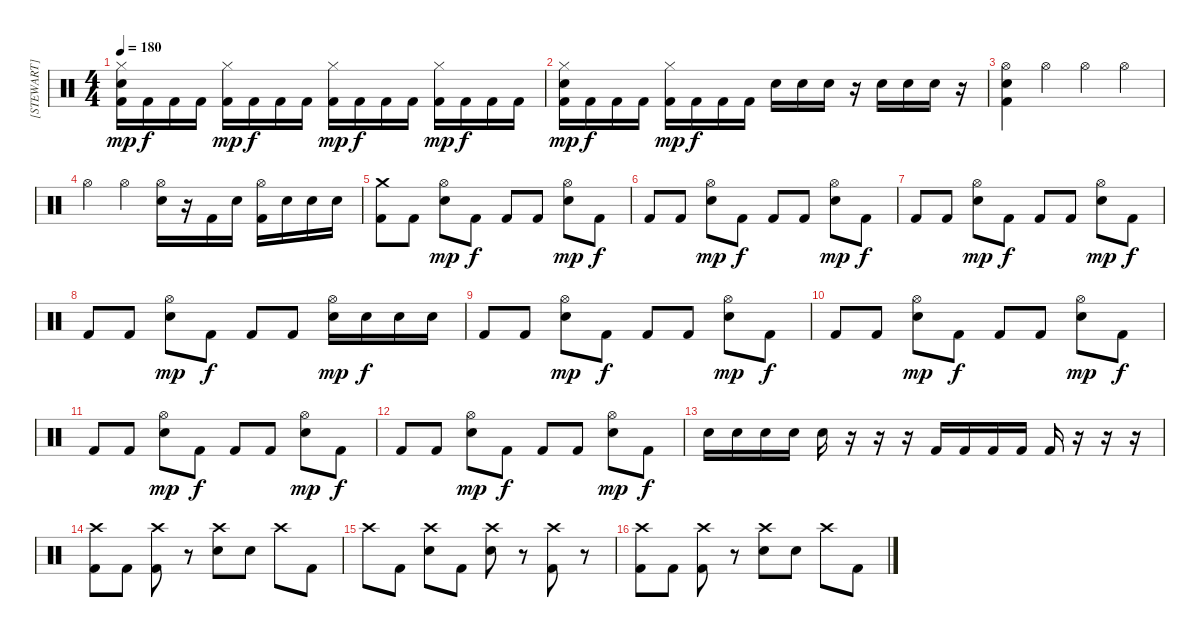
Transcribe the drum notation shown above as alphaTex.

\track ("[STEWART]" "[STEWART]") {instrument percussion}
\staff {score}
\articulation defaults
\ts (4 4)
\tempo 180
\clef neutral
\ks c
("Hi-Hat (closed)" "Snare (hit) 2" "Kick (hit) 2").16{dy mp} "Kick (hit) 2".16{dy f} "Kick (hit) 2".16 "Kick (hit) 2".16 ("Hi-Hat (closed)" "Kick (hit) 2").16{dy mp} "Kick (hit) 2".16{dy f} "Kick (hit) 2".16 "Kick (hit) 2".16 ("Hi-Hat (closed)" "Kick (hit) 2").16{dy mp} "Kick (hit) 2".16{dy f} "Kick (hit) 2".16 "Kick (hit) 2".16 ("Hi-Hat (closed)" "Kick (hit) 2").16{dy mp} "Kick (hit) 2".16{dy f} "Kick (hit) 2".16 "Kick (hit) 2".16 |
("Hi-Hat (closed)" "Snare (hit) 2" "Kick (hit) 2").16{dy mp} "Kick (hit) 2".16{dy f} "Kick (hit) 2".16 "Kick (hit) 2".16 ("Hi-Hat (closed)" "Kick (hit) 2").16{dy mp} "Kick (hit) 2".16{dy f} "Kick (hit) 2".16 "Kick (hit) 2".16 "Snare (hit) 2".16 "Snare (hit) 2".16 "Snare (hit) 2".16 r.16 "Snare (hit) 2".16 "Snare (hit) 2".16 "Snare (hit) 2".16 r.16 |
("Hi-Hat (open)" "Snare (hit) 2" "Kick (hit) 2").4 "Hi-Hat (open)".4 "Hi-Hat (open)".4 "Hi-Hat (open)".4 |
"Hi-Hat (open)".4 "Hi-Hat (open)".4 ("Hi-Hat (open)" "Snare (hit) 2").16 r.16 "Kick (hit) 2".16 "Snare (hit) 2".16 ("Hi-Hat (open)" "Kick (hit) 2").16 "Snare (hit) 2".16 "Snare (hit) 2".16 "Snare (hit) 2".16 |
("Crash medium (hit)" "Kick (hit) 2").8 "Kick (hit) 2".8 ("Hi-Hat (open)" "Snare (hit) 2").8{dy mp} "Kick (hit) 2".8{dy f} "Kick (hit) 2".8 "Kick (hit) 2".8 ("Hi-Hat (open)" "Snare (hit) 2").8{dy mp} "Kick (hit) 2".8{dy f} |
"Kick (hit) 2".8 "Kick (hit) 2".8 ("Hi-Hat (open)" "Snare (hit) 2").8{dy mp} "Kick (hit) 2".8{dy f} "Kick (hit) 2".8 "Kick (hit) 2".8 ("Hi-Hat (open)" "Snare (hit) 2").8{dy mp} "Kick (hit) 2".8{dy f} |
"Kick (hit) 2".8 "Kick (hit) 2".8 ("Hi-Hat (open)" "Snare (hit) 2").8{dy mp} "Kick (hit) 2".8{dy f} "Kick (hit) 2".8 "Kick (hit) 2".8 ("Hi-Hat (open)" "Snare (hit) 2").8{dy mp} "Kick (hit) 2".8{dy f} |
"Kick (hit) 2".8 "Kick (hit) 2".8 ("Hi-Hat (open)" "Snare (hit) 2").8{dy mp} "Kick (hit) 2".8{dy f} "Kick (hit) 2".8 "Kick (hit) 2".8 ("Hi-Hat (open)" "Snare (hit) 2").16{dy mp} "Snare (hit) 2".16{dy f} "Snare (hit) 2".16 "Snare (hit) 2".16 |
"Kick (hit) 2".8 "Kick (hit) 2".8 ("Hi-Hat (open)" "Snare (hit) 2").8{dy mp} "Kick (hit) 2".8{dy f} "Kick (hit) 2".8 "Kick (hit) 2".8 ("Hi-Hat (open)" "Snare (hit) 2").8{dy mp} "Kick (hit) 2".8{dy f} |
"Kick (hit) 2".8 "Kick (hit) 2".8 ("Hi-Hat (open)" "Snare (hit) 2").8{dy mp} "Kick (hit) 2".8{dy f} "Kick (hit) 2".8 "Kick (hit) 2".8 ("Hi-Hat (open)" "Snare (hit) 2").8{dy mp} "Kick (hit) 2".8{dy f} |
"Kick (hit) 2".8 "Kick (hit) 2".8 ("Hi-Hat (open)" "Snare (hit) 2").8{dy mp} "Kick (hit) 2".8{dy f} "Kick (hit) 2".8 "Kick (hit) 2".8 ("Hi-Hat (open)" "Snare (hit) 2").8{dy mp} "Kick (hit) 2".8{dy f} |
"Kick (hit) 2".8 "Kick (hit) 2".8 ("Hi-Hat (open)" "Snare (hit) 2").8{dy mp} "Kick (hit) 2".8{dy f} "Kick (hit) 2".8 "Kick (hit) 2".8 ("Hi-Hat (open)" "Snare (hit) 2").8{dy mp} "Kick (hit) 2".8{dy f} |
"Snare (hit) 2".16 "Snare (hit) 2".16 "Snare (hit) 2".16 "Snare (hit) 2".16 "Snare (hit) 2".16 r.16 r.16 r.16 "Kick (hit) 2".16 "Kick (hit) 2".16 "Kick (hit) 2".16 "Kick (hit) 2".16 "Kick (hit) 2".16 r.16 r.16 r.16 |
("Crash high (hit)" "Kick (hit) 2").8 "Kick (hit) 2".8 ("Crash high (hit)" "Kick (hit) 2").8 r.8 ("Crash high (hit)" "Snare (hit) 2").8 "Snare (hit) 2".8 "Crash high (hit)".8 "Kick (hit) 2".8 |
"Crash high (hit)".8 "Kick (hit) 2".8 ("Crash high (hit)" "Snare (hit) 2").8 "Kick (hit) 2".8 ("Crash high (hit)" "Snare (hit) 2").8 r.8 ("Crash high (hit)" "Kick (hit) 2").8 r.8 |
("Crash high (hit)" "Kick (hit) 2").8 "Kick (hit) 2".8 ("Crash high (hit)" "Kick (hit) 2").8 r.8 ("Crash high (hit)" "Snare (hit) 2").8 "Snare (hit) 2".8 "Crash high (hit)".8 "Kick (hit) 2".8
